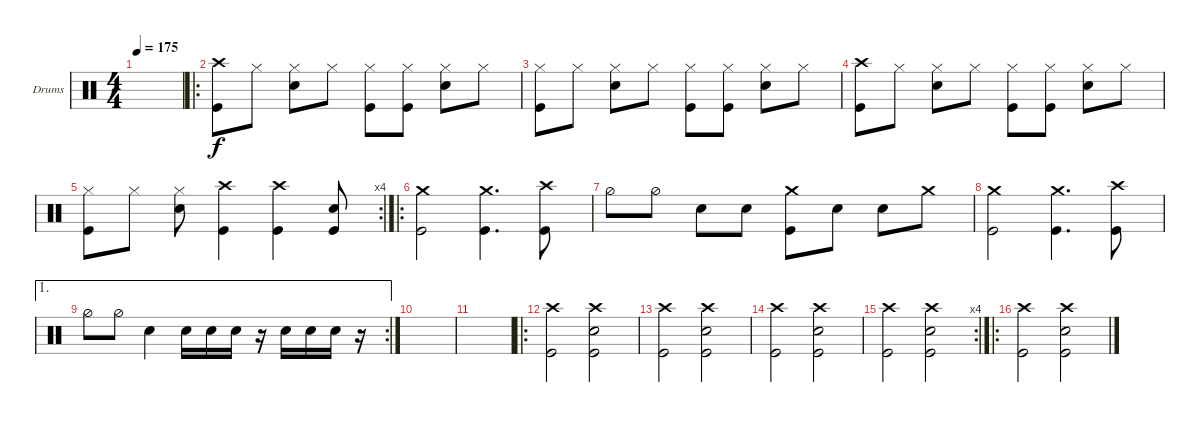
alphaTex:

\bracketExtendMode groupsimilarinstruments
\firstSystemTrackNameOrientation horizontal
\otherSystemsTrackNameOrientation horizontal
\track ("Drumkit" "Drums") {instrument percussion}
\staff {score}
\articulation defaults
\ts (4 4)
\tempo 175
\clef neutral
\ks c
|
\ro
("Crash high (hit)" "Kick (hit)").8 "Hi-Hat (closed)".8 ("Hi-Hat (closed)" "Snare (hit) 2").8 "Hi-Hat (closed)".8 ("Hi-Hat (closed)" "Kick (hit)").8 ("Hi-Hat (closed)" "Kick (hit)").8 ("Hi-Hat (closed)" "Snare (hit) 2").8 "Hi-Hat (closed)".8 |
("Kick (hit)" "Hi-Hat (closed)").8 "Hi-Hat (closed)".8 ("Hi-Hat (closed)" "Snare (hit) 2").8 "Hi-Hat (closed)".8 ("Hi-Hat (closed)" "Kick (hit)").8 ("Hi-Hat (closed)" "Kick (hit)").8 ("Hi-Hat (closed)" "Snare (hit) 2").8 "Hi-Hat (closed)".8 |
("Crash high (hit)" "Kick (hit)").8 "Hi-Hat (closed)".8 ("Hi-Hat (closed)" "Snare (hit) 2").8 "Hi-Hat (closed)".8 ("Hi-Hat (closed)" "Kick (hit)").8 ("Hi-Hat (closed)" "Kick (hit)").8 ("Hi-Hat (closed)" "Snare (hit) 2").8 "Hi-Hat (closed)".8 |
\rc 4
("Kick (hit)" "Hi-Hat (closed)").8 "Hi-Hat (closed)".8 ("Hi-Hat (closed)" "Snare (hit) 2").8 ("Crash high (hit)" "Kick (hit)").4 ("Crash high (hit)" "Kick (hit)").4 ("Snare (hit) 2" "Kick (hit)").8 |
\ro
("Crash medium (hit)" "Kick (hit)").2 ("Crash medium (hit)" "Kick (hit)").4{d} ("Kick (hit)" "Crash high (hit)").8 |
"Hi-Hat (half)".8 "Hi-Hat (half)".8 "Snare (hit) 2".8 "Snare (hit) 2".8 ("Kick (hit)" "Crash medium (hit)").8 "Snare (hit) 2".8 "Snare (hit) 2".8 "Crash medium (hit)".8 |
("Crash medium (hit)" "Kick (hit)").2 ("Crash medium (hit)" "Kick (hit)").4{d} ("Kick (hit)" "Crash high (hit)").8 |
\ae 1
\rc 2 "Hi-Hat (half)".8 "Hi-Hat (half)".8 "Snare (hit) 2".4 "Snare (hit) 2".16 "Snare (hit) 2".16 "Snare (hit) 2".16
r.16 "Snare (hit) 2".16 "Snare (hit) 2".16 "Snare (hit) 2".16 r.16 |
|
|
\ro
("Kick (hit)" "Crash high (hit)").2 ("Snare (hit) 2" "Crash high (hit)" "Kick (hit)").2 |
("Kick (hit)" "Crash high (hit)").2 ("Snare (hit) 2" "Crash high (hit)" "Kick (hit)").2 |
("Kick (hit)" "Crash high (hit)").2 ("Snare (hit) 2" "Crash high (hit)" "Kick (hit)").2 |
\rc 4
("Kick (hit)" "Crash high (hit)").2 ("Snare (hit) 2" "Crash high (hit)" "Kick (hit)").2 |
\ro
("Kick (hit)" "Crash high (hit)").2 ("Snare (hit) 2" "Crash high (hit)" "Kick (hit)").2
